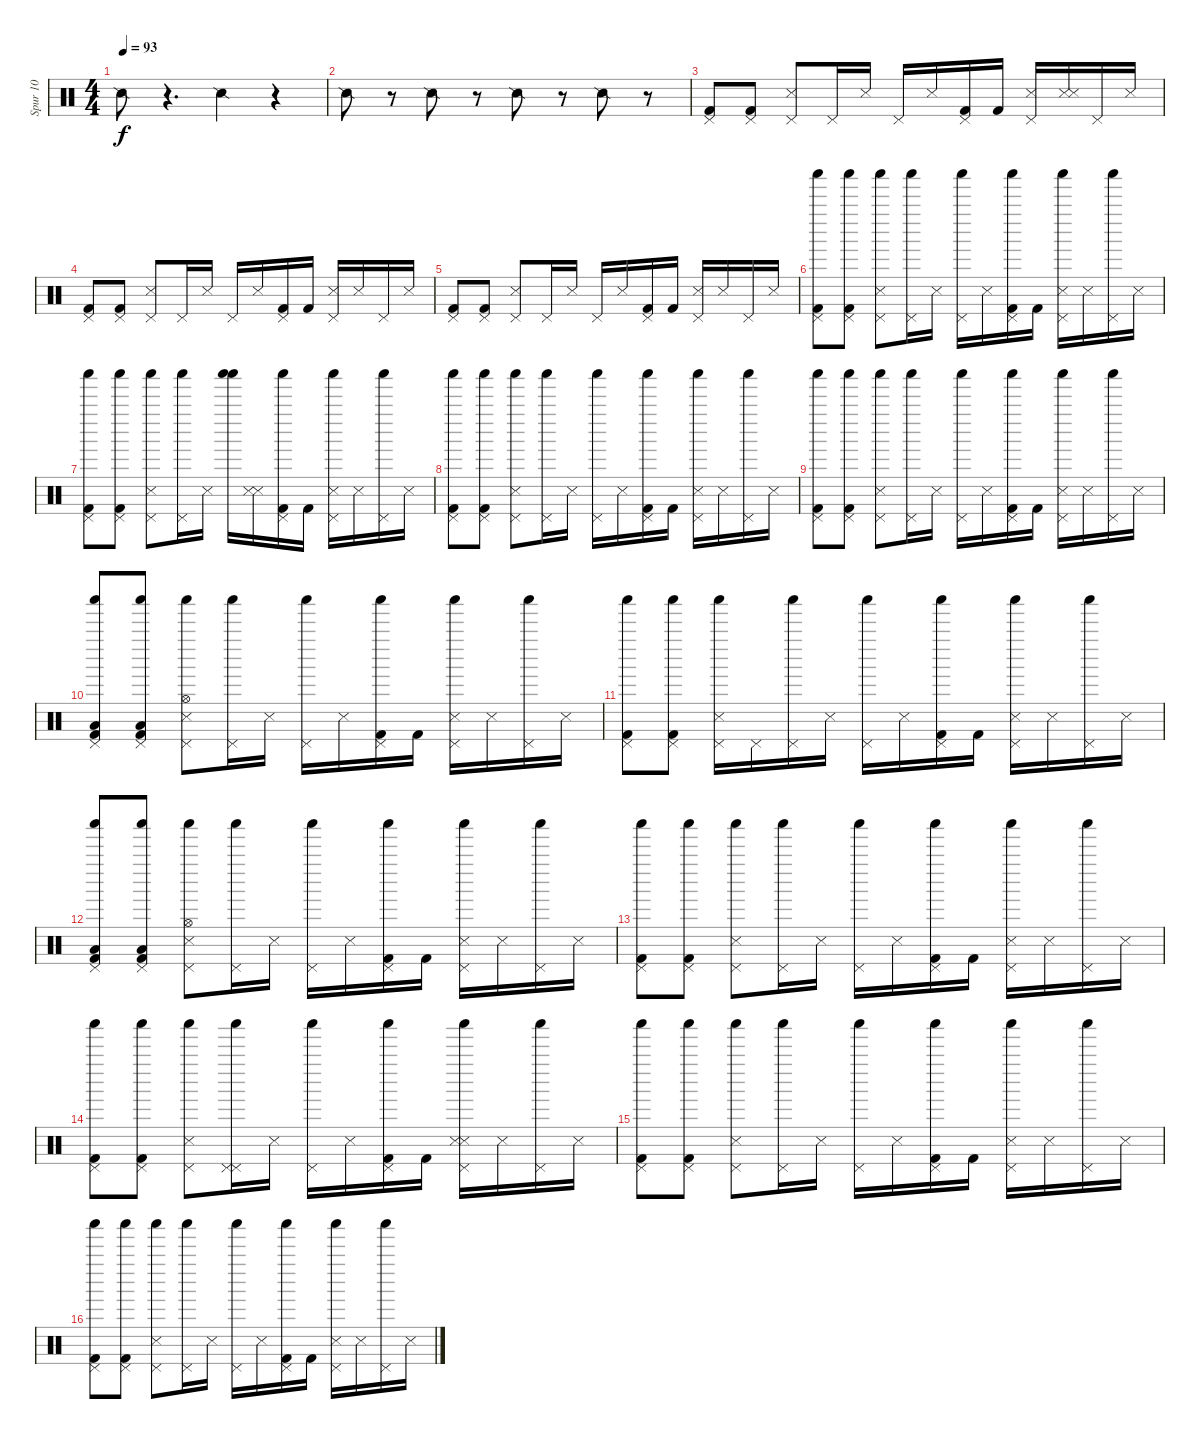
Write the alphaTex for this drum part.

\track ("Spur 10" "Spur 10") {instrument percussion}
\staff {score}
\articulation defaults
\ts (4 4)
\tempo 93
\clef neutral
\ks c "Snare (side stick) 2".8{dy f}
r.4{d} "Snare (side stick) 2".4 r.4 |
"Snare (side stick) 2".8{balance 8} r.8 "Snare (side stick) 2".8 r.8 "Snare (side stick) 2".8 r.8 "Snare (side stick) 2".8 r.8 |
("Pedal Hi-Hat (hit)" "Kick (hit) 2").8 ("Kick (hit) 2" "Pedal Hi-Hat (hit)").8 ("Snare (side stick) 3" "Pedal Hi-Hat (hit)").8 "Pedal Hi-Hat (hit)".16 "Snare (side stick) 3".16 "Pedal Hi-Hat (hit)".16 "Snare (side stick) 3".16 ("Kick (hit) 2" "Pedal Hi-Hat (hit)").16 "Kick (hit) 2".16 ("Snare (side stick) 3" "Pedal Hi-Hat (hit)").16 ("Snare (side stick) 3" "Snare (side stick) 3").16 "Pedal Hi-Hat (hit)".16 "Snare (side stick) 3".16 |
("Kick (hit) 2" "Pedal Hi-Hat (hit)").8 ("Pedal Hi-Hat (hit)" "Kick (hit) 2").8 ("Snare (side stick) 3" "Pedal Hi-Hat (hit)").8 "Pedal Hi-Hat (hit)".16{volume 12} "Snare (side stick) 3".16 "Pedal Hi-Hat (hit)".16 "Snare (side stick) 3".16 ("Kick (hit) 2" "Pedal Hi-Hat (hit)").16 "Kick (hit) 2".16 ("Snare (side stick) 3" "Pedal Hi-Hat (hit)").16 "Snare (side stick) 3".16 "Pedal Hi-Hat (hit)".16 "Snare (side stick) 3".16 |
("Kick (hit) 2" "Pedal Hi-Hat (hit)").8 ("Kick (hit) 2" "Pedal Hi-Hat (hit)").8 ("Snare (side stick) 3" "Pedal Hi-Hat (hit)").8 "Pedal Hi-Hat (hit)".16 "Snare (side stick) 3".16 "Pedal Hi-Hat (hit)".16 "Snare (side stick) 3".16 ("Kick (hit) 2" "Pedal Hi-Hat (hit)").16 "Kick (hit) 2".16 ("Snare (side stick) 3" "Pedal Hi-Hat (hit)").16 "Snare (side stick) 3".16 "Pedal Hi-Hat (hit)".16 "Snare (side stick) 3".16 |
("Shaker (hit)" "Kick (hit) 2" "Pedal Hi-Hat (hit)").8 ("Shaker (hit)" "Kick (hit) 2" "Pedal Hi-Hat (hit)").8 ("Shaker (hit)" "Pedal Hi-Hat (hit)" "Snare (side stick) 3").8 ("Shaker (hit)" "Pedal Hi-Hat (hit)").16 "Snare (side stick) 3".16 ("Shaker (hit)" "Pedal Hi-Hat (hit)").16 "Snare (side stick) 3".16 ("Shaker (hit)" "Kick (hit) 2" "Pedal Hi-Hat (hit)").16 "Kick (hit) 2".16 ("Shaker (hit)" "Snare (side stick) 3" "Pedal Hi-Hat (hit)").16 "Snare (side stick) 3".16 ("Shaker (hit)" "Pedal Hi-Hat (hit)").16 "Snare (side stick) 3".16 |
("Shaker (hit)" "Kick (hit) 2" "Pedal Hi-Hat (hit)").8 ("Shaker (hit)" "Kick (hit) 2" "Pedal Hi-Hat (hit)").8 ("Shaker (hit)" "Snare (side stick) 3" "Pedal Hi-Hat (hit)").8 ("Shaker (hit)" "Pedal Hi-Hat (hit)").16 "Snare (side stick) 3".16 ("Shaker (hit)" "Shaker (hit)").16 ("Snare (side stick) 3" "Snare (side stick) 3").16 ("Shaker (hit)" "Kick (hit) 2" "Pedal Hi-Hat (hit)").16 "Kick (hit) 2".16 ("Shaker (hit)" "Snare (side stick) 3" "Pedal Hi-Hat (hit)").16 "Snare (side stick) 3".16 ("Shaker (hit)" "Pedal Hi-Hat (hit)").16 "Snare (side stick) 3".16 |
("Shaker (hit)" "Kick (hit) 2" "Pedal Hi-Hat (hit)").8{volume 12} ("Shaker (hit)" "Kick (hit) 2" "Pedal Hi-Hat (hit)").8{volume 12} ("Shaker (hit)" "Snare (side stick) 3" "Pedal Hi-Hat (hit)").8 ("Shaker (hit)" "Pedal Hi-Hat (hit)").16 "Snare (side stick) 3".16 ("Shaker (hit)" "Pedal Hi-Hat (hit)").16 "Snare (side stick) 3".16 ("Shaker (hit)" "Kick (hit) 2" "Pedal Hi-Hat (hit)").16 "Kick (hit) 2".16 ("Shaker (hit)" "Snare (side stick) 3" "Pedal Hi-Hat (hit)").16 "Snare (side stick) 3".16 ("Shaker (hit)" "Pedal Hi-Hat (hit)").16 "Snare (side stick) 3".16 |
("Shaker (hit)" "Kick (hit) 2" "Pedal Hi-Hat (hit)").8 ("Shaker (hit)" "Kick (hit) 2" "Pedal Hi-Hat (hit)").8{volume 12} ("Shaker (hit)" "Snare (side stick) 3" "Pedal Hi-Hat (hit)").8 ("Shaker (hit)" "Pedal Hi-Hat (hit)").16 "Snare (side stick) 3".16 ("Shaker (hit)" "Pedal Hi-Hat (hit)").16 "Snare (side stick) 3".16 ("Shaker (hit)" "Kick (hit) 2" "Pedal Hi-Hat (hit)").16 "Kick (hit) 2".16 ("Shaker (hit)" "Snare (side stick) 3" "Pedal Hi-Hat (hit)").16 "Snare (side stick) 3".16 ("Shaker (hit)" "Pedal Hi-Hat (hit)").16 "Snare (side stick) 3".16 |
("Low Tom (hit)" "Shaker (hit)" "Kick (hit) 2" "Pedal Hi-Hat (hit)").8 ("Low Tom (hit)" "Shaker (hit)" "Kick (hit) 2" "Pedal Hi-Hat (hit)").8 ("Shaker (hit)" "Snare (side stick) 3" "Hi-Hat (open)" "Pedal Hi-Hat (hit)").8 ("Shaker (hit)" "Pedal Hi-Hat (hit)").16 "Snare (side stick) 3".16 ("Shaker (hit)" "Pedal Hi-Hat (hit)").16 "Snare (side stick) 3".16 ("Shaker (hit)" "Kick (hit) 2" "Pedal Hi-Hat (hit)").16 "Kick (hit) 2".16 ("Shaker (hit)" "Snare (side stick) 3" "Pedal Hi-Hat (hit)").16 "Snare (side stick) 3".16 ("Shaker (hit)" "Pedal Hi-Hat (hit)").16 "Snare (side stick) 3".16 |
("Shaker (hit)" "Kick (hit) 2" "Pedal Hi-Hat (hit)").8 ("Shaker (hit)" "Kick (hit) 2" "Pedal Hi-Hat (hit)").8 ("Shaker (hit)" "Snare (side stick) 3" "Pedal Hi-Hat (hit)").16 "Pedal Hi-Hat (hit)".16 ("Shaker (hit)" "Pedal Hi-Hat (hit)").16 "Snare (side stick) 3".16 ("Shaker (hit)" "Pedal Hi-Hat (hit)").16 "Snare (side stick) 3".16 ("Shaker (hit)" "Kick (hit) 2" "Pedal Hi-Hat (hit)").16 "Kick (hit) 2".16 ("Shaker (hit)" "Snare (side stick) 3" "Pedal Hi-Hat (hit)").16 "Snare (side stick) 3".16 ("Shaker (hit)" "Pedal Hi-Hat (hit)").16 "Snare (side stick) 3".16 |
("Low Tom (hit)" "Shaker (hit)" "Kick (hit) 2" "Pedal Hi-Hat (hit)").8 ("Low Tom (hit)" "Shaker (hit)" "Kick (hit) 2" "Pedal Hi-Hat (hit)").8 ("Shaker (hit)" "Snare (side stick) 3" "Hi-Hat (open)" "Pedal Hi-Hat (hit)").8 ("Shaker (hit)" "Pedal Hi-Hat (hit)").16 "Snare (side stick) 3".16 ("Shaker (hit)" "Pedal Hi-Hat (hit)").16 "Snare (side stick) 3".16 ("Shaker (hit)" "Kick (hit) 2" "Pedal Hi-Hat (hit)").16 "Kick (hit) 2".16 ("Shaker (hit)" "Snare (side stick) 3" "Pedal Hi-Hat (hit)").16 "Snare (side stick) 3".16 ("Shaker (hit)" "Pedal Hi-Hat (hit)").16 "Snare (side stick) 3".16 |
("Shaker (hit)" "Kick (hit) 2" "Pedal Hi-Hat (hit)").8 ("Shaker (hit)" "Kick (hit) 2" "Pedal Hi-Hat (hit)").8 ("Shaker (hit)" "Snare (side stick) 3" "Pedal Hi-Hat (hit)").8 ("Shaker (hit)" "Pedal Hi-Hat (hit)").16 "Snare (side stick) 3".16 ("Shaker (hit)" "Pedal Hi-Hat (hit)").16 "Snare (side stick) 3".16 ("Shaker (hit)" "Kick (hit) 2" "Pedal Hi-Hat (hit)").16 "Kick (hit) 2".16 ("Shaker (hit)" "Snare (side stick) 3" "Pedal Hi-Hat (hit)").16 "Snare (side stick) 3".16 ("Shaker (hit)" "Pedal Hi-Hat (hit)").16 "Snare (side stick) 3".16 |
("Shaker (hit)" "Kick (hit) 2" "Pedal Hi-Hat (hit)").8 ("Shaker (hit)" "Kick (hit) 2" "Pedal Hi-Hat (hit)").8 ("Shaker (hit)" "Snare (side stick) 3" "Pedal Hi-Hat (hit)").8 ("Shaker (hit)" "Pedal Hi-Hat (hit)" "Pedal Hi-Hat (hit)").16 "Snare (side stick) 3".16 ("Shaker (hit)" "Pedal Hi-Hat (hit)").16 "Snare (side stick) 3".16 ("Shaker (hit)" "Kick (hit) 2" "Pedal Hi-Hat (hit)").16 "Kick (hit) 2".16 ("Shaker (hit)" "Snare (side stick) 3" "Snare (side stick) 3" "Pedal Hi-Hat (hit)").16 "Snare (side stick) 3".16 ("Shaker (hit)" "Pedal Hi-Hat (hit)").16 "Snare (side stick) 3".16 |
("Shaker (hit)" "Kick (hit) 2" "Pedal Hi-Hat (hit)").8 ("Shaker (hit)" "Kick (hit) 2" "Pedal Hi-Hat (hit)").8 ("Shaker (hit)" "Snare (side stick) 3" "Pedal Hi-Hat (hit)").8 ("Shaker (hit)" "Pedal Hi-Hat (hit)").16 "Snare (side stick) 3".16 ("Shaker (hit)" "Pedal Hi-Hat (hit)").16 "Snare (side stick) 3".16 ("Shaker (hit)" "Kick (hit) 2" "Pedal Hi-Hat (hit)").16 "Kick (hit) 2".16 ("Shaker (hit)" "Snare (side stick) 3" "Pedal Hi-Hat (hit)").16 "Snare (side stick) 3".16 ("Shaker (hit)" "Pedal Hi-Hat (hit)").16 "Snare (side stick) 3".16 |
("Shaker (hit)" "Pedal Hi-Hat (hit)" "Kick (hit) 2").8 ("Shaker (hit)" "Kick (hit) 2" "Pedal Hi-Hat (hit)").8 ("Shaker (hit)" "Snare (side stick) 3" "Pedal Hi-Hat (hit)").8 ("Shaker (hit)" "Pedal Hi-Hat (hit)").16 "Snare (side stick) 3".16 ("Shaker (hit)" "Pedal Hi-Hat (hit)").16 "Snare (side stick) 3".16 ("Shaker (hit)" "Kick (hit) 2" "Pedal Hi-Hat (hit)").16 "Kick (hit) 2".16 ("Shaker (hit)" "Snare (side stick) 3" "Pedal Hi-Hat (hit)").16 "Snare (side stick) 3".16 ("Shaker (hit)" "Pedal Hi-Hat (hit)").16 "Snare (side stick) 3".16
